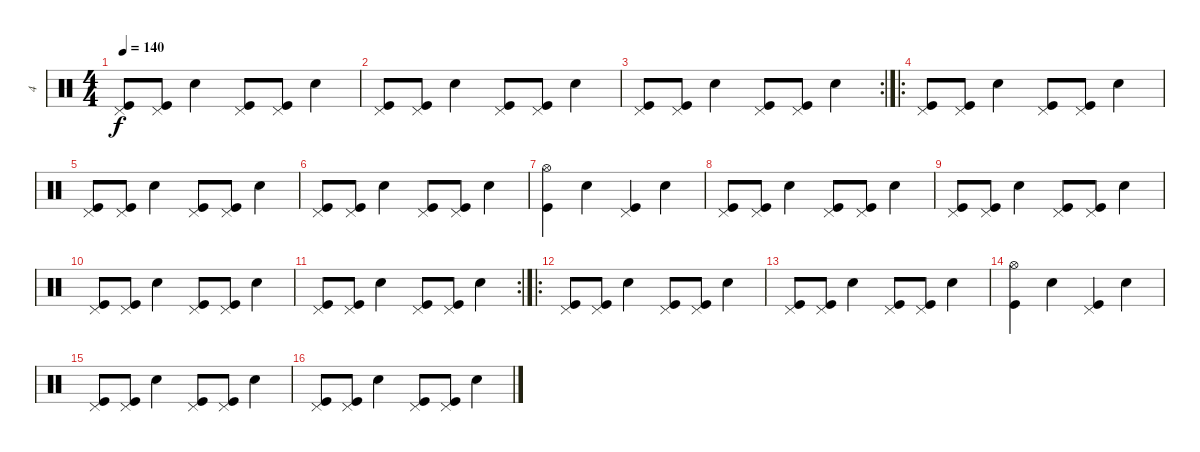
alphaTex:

\track ("4" "4") {instrument percussion}
\staff {score}
\articulation defaults
\ts (4 4)
\tempo 140
\clef neutral
\ks c
("Pedal Hi-Hat (hit)" "Kick (hit)").8{dy f} ("Pedal Hi-Hat (hit)" "Kick (hit)").8 "Snare (hit) 2".4 ("Pedal Hi-Hat (hit)" "Kick (hit)").8 ("Pedal Hi-Hat (hit)" "Kick (hit)").8 "Snare (hit) 2".4 |
("Pedal Hi-Hat (hit)" "Kick (hit)").8 ("Pedal Hi-Hat (hit)" "Kick (hit)").8 "Snare (hit) 2".4 ("Pedal Hi-Hat (hit)" "Kick (hit)").8 ("Pedal Hi-Hat (hit)" "Kick (hit)").8 "Snare (hit) 2".4 |
\rc 2
("Pedal Hi-Hat (hit)" "Kick (hit)").8 ("Pedal Hi-Hat (hit)" "Kick (hit)").8 "Snare (hit) 2".4 ("Pedal Hi-Hat (hit)" "Kick (hit)").8 ("Pedal Hi-Hat (hit)" "Kick (hit)").8 "Snare (hit) 2".4 |
\ro
("Pedal Hi-Hat (hit)" "Kick (hit)").8 ("Pedal Hi-Hat (hit)" "Kick (hit)").8 "Snare (hit) 2".4 ("Pedal Hi-Hat (hit)" "Kick (hit)").8 ("Pedal Hi-Hat (hit)" "Kick (hit)").8 "Snare (hit) 2".4 |
("Pedal Hi-Hat (hit)" "Kick (hit)").8 ("Pedal Hi-Hat (hit)" "Kick (hit)").8 "Snare (hit) 2".4 ("Pedal Hi-Hat (hit)" "Kick (hit)").8 ("Pedal Hi-Hat (hit)" "Kick (hit)").8 "Snare (hit) 2".4 |
("Pedal Hi-Hat (hit)" "Kick (hit)").8 ("Pedal Hi-Hat (hit)" "Kick (hit)").8 "Snare (hit) 2".4 ("Pedal Hi-Hat (hit)" "Kick (hit)").8 ("Pedal Hi-Hat (hit)" "Kick (hit)").8 "Snare (hit) 2".4 |
("Hi-Hat (open)" "Kick (hit)").4 "Snare (hit) 2".4 ("Pedal Hi-Hat (hit)" "Kick (hit)").4 "Snare (hit) 2".4 |
("Pedal Hi-Hat (hit)" "Kick (hit)").8 ("Pedal Hi-Hat (hit)" "Kick (hit)").8 "Snare (hit) 2".4 ("Pedal Hi-Hat (hit)" "Kick (hit)").8 ("Pedal Hi-Hat (hit)" "Kick (hit)").8 "Snare (hit) 2".4 |
("Pedal Hi-Hat (hit)" "Kick (hit)").8 ("Pedal Hi-Hat (hit)" "Kick (hit)").8 "Snare (hit) 2".4 ("Pedal Hi-Hat (hit)" "Kick (hit)").8 ("Pedal Hi-Hat (hit)" "Kick (hit)").8 "Snare (hit) 2".4 |
("Pedal Hi-Hat (hit)" "Kick (hit)").8 ("Pedal Hi-Hat (hit)" "Kick (hit)").8 "Snare (hit) 2".4 ("Pedal Hi-Hat (hit)" "Kick (hit)").8 ("Pedal Hi-Hat (hit)" "Kick (hit)").8 "Snare (hit) 2".4 |
\rc 2
("Pedal Hi-Hat (hit)" "Kick (hit)").8 ("Pedal Hi-Hat (hit)" "Kick (hit)").8 "Snare (hit) 2".4 ("Pedal Hi-Hat (hit)" "Kick (hit)").8 ("Pedal Hi-Hat (hit)" "Kick (hit)").8 "Snare (hit) 2".4 |
\ro
("Pedal Hi-Hat (hit)" "Kick (hit)").8 ("Pedal Hi-Hat (hit)" "Kick (hit)").8 "Snare (hit) 2".4 ("Pedal Hi-Hat (hit)" "Kick (hit)").8 ("Pedal Hi-Hat (hit)" "Kick (hit)").8 "Snare (hit) 2".4 |
("Pedal Hi-Hat (hit)" "Kick (hit)").8 ("Pedal Hi-Hat (hit)" "Kick (hit)").8 "Snare (hit) 2".4 ("Pedal Hi-Hat (hit)" "Kick (hit)").8 ("Pedal Hi-Hat (hit)" "Kick (hit)").8 "Snare (hit) 2".4 |
("Hi-Hat (open)" "Kick (hit)").4 "Snare (hit) 2".4 ("Pedal Hi-Hat (hit)" "Kick (hit)").4 "Snare (hit) 2".4 |
("Pedal Hi-Hat (hit)" "Kick (hit)").8 ("Pedal Hi-Hat (hit)" "Kick (hit)").8 "Snare (hit) 2".4 ("Pedal Hi-Hat (hit)" "Kick (hit)").8 ("Pedal Hi-Hat (hit)" "Kick (hit)").8 "Snare (hit) 2".4 |
("Pedal Hi-Hat (hit)" "Kick (hit)").8 ("Pedal Hi-Hat (hit)" "Kick (hit)").8 "Snare (hit) 2".4 ("Pedal Hi-Hat (hit)" "Kick (hit)").8 ("Pedal Hi-Hat (hit)" "Kick (hit)").8 "Snare (hit) 2".4
